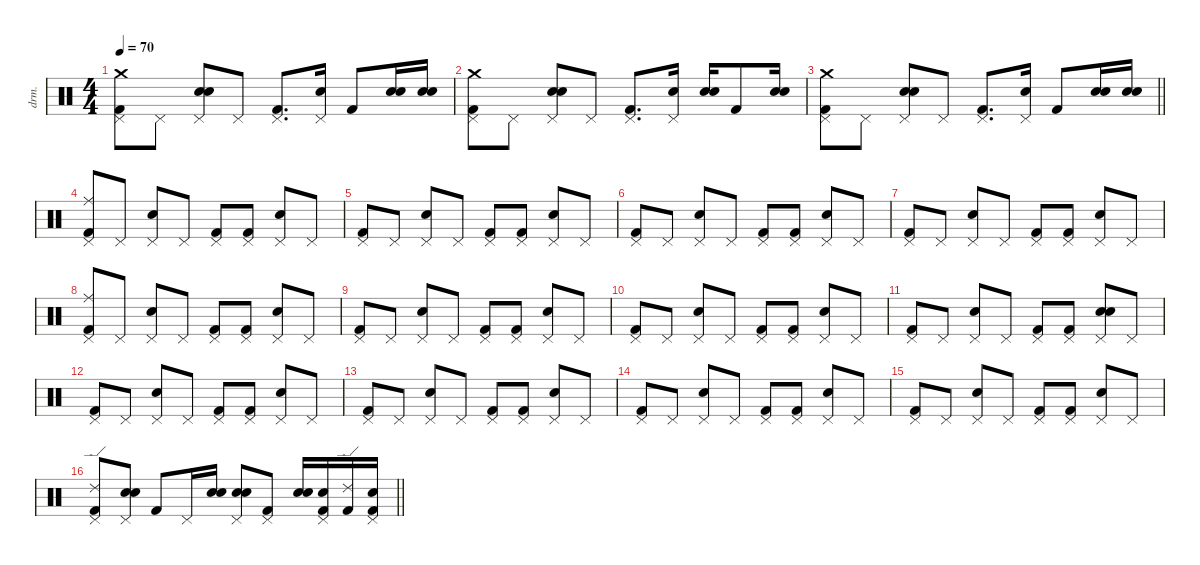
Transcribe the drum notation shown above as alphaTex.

\defaultSystemsLayout 4
\hideDynamics
\bracketExtendMode nobrackets
\otherSystemsTrackNameOrientation horizontal
\track ("Drums" "drm.") {defaultSystemsLayout 4 instrument percussion}
\staff {score}
\articulation defaults
\ts (4 4)
\tempo 70
\clef neutral
\ks c
("Crash medium (hit)" "Pedal Hi-Hat (hit)" "Kick (hit) 2").8{dy f beam Down} "Pedal Hi-Hat (hit)".8{beam Down} ("Pedal Hi-Hat (hit)" "Snare (hit) 2" "Snare (hit) 2").8{beam Up} "Pedal Hi-Hat (hit)".8{beam Up} ("Pedal Hi-Hat (hit)" "Kick (hit) 2").8{d beam Up} ("Pedal Hi-Hat (hit)" "Snare (hit) 2").16{beam Up} "Kick (hit) 2".8{beam Up} ("Snare (hit) 2" "Snare (hit) 2").16{beam Up} ("Snare (hit) 2" "Snare (hit) 2").16{beam Up} |
("Crash medium (hit)" "Pedal Hi-Hat (hit)" "Kick (hit) 2").8{beam Down} "Pedal Hi-Hat (hit)".8{beam Down} ("Pedal Hi-Hat (hit)" "Snare (hit) 2" "Snare (hit) 2").8{beam Up} "Pedal Hi-Hat (hit)".8{beam Up} ("Pedal Hi-Hat (hit)" "Kick (hit) 2").8{d beam Up} ("Pedal Hi-Hat (hit)" "Snare (hit) 2").16{beam Up} ("Snare (hit) 2" "Snare (hit) 2").16{beam Up} "Kick (hit) 2".8{beam Up} ("Snare (hit) 2" "Snare (hit) 2").16{beam Up} |
\barLineRight lightlight
("Crash medium (hit)" "Pedal Hi-Hat (hit)" "Kick (hit) 2").8{beam Down} "Pedal Hi-Hat (hit)".8{beam Down} ("Pedal Hi-Hat (hit)" "Snare (hit) 2" "Snare (hit) 2").8{beam Up} "Pedal Hi-Hat (hit)".8{beam Up} ("Pedal Hi-Hat (hit)" "Kick (hit) 2").8{d beam Up} ("Pedal Hi-Hat (hit)" "Snare (hit) 2").16{beam Up} "Kick (hit) 2".8{beam Up} ("Snare (hit) 2" "Snare (hit) 2").16{beam Up} ("Snare (hit) 2" "Snare (hit) 2").16{beam Up} |
("Pedal Hi-Hat (hit)" "Ride (middle)" "Kick (hit) 2").8{beam Up} "Pedal Hi-Hat (hit)".8{beam Up} ("Pedal Hi-Hat (hit)" "Snare (hit) 2").8{beam Up} "Pedal Hi-Hat (hit)".8{beam Up} ("Pedal Hi-Hat (hit)" "Kick (hit) 2").8{beam Up} ("Pedal Hi-Hat (hit)" "Kick (hit) 2").8{beam Up} ("Pedal Hi-Hat (hit)" "Snare (hit) 2").8{beam Up} "Pedal Hi-Hat (hit)".8{beam Up} |
("Pedal Hi-Hat (hit)" "Kick (hit) 2").8{beam Up} "Pedal Hi-Hat (hit)".8{beam Up} ("Pedal Hi-Hat (hit)" "Snare (hit) 2").8{beam Up} "Pedal Hi-Hat (hit)".8{beam Up} ("Pedal Hi-Hat (hit)" "Kick (hit) 2").8{beam Up} ("Pedal Hi-Hat (hit)" "Kick (hit) 2").8{beam Up} ("Pedal Hi-Hat (hit)" "Snare (hit) 2").8{beam Up} "Pedal Hi-Hat (hit)".8{beam Up} |
("Pedal Hi-Hat (hit)" "Kick (hit) 2").8{beam Up} "Pedal Hi-Hat (hit)".8{beam Up} ("Pedal Hi-Hat (hit)" "Snare (hit) 2").8{beam Up} "Pedal Hi-Hat (hit)".8{beam Up} ("Pedal Hi-Hat (hit)" "Kick (hit) 2").8{beam Up} ("Pedal Hi-Hat (hit)" "Kick (hit) 2").8{beam Up} ("Pedal Hi-Hat (hit)" "Snare (hit) 2").8{beam Up} "Pedal Hi-Hat (hit)".8{beam Up} |
("Pedal Hi-Hat (hit)" "Kick (hit) 2").8{beam Up} "Pedal Hi-Hat (hit)".8{beam Up} ("Pedal Hi-Hat (hit)" "Snare (hit) 2").8{beam Up} "Pedal Hi-Hat (hit)".8{beam Up} ("Pedal Hi-Hat (hit)" "Kick (hit) 2").8{beam Up} ("Pedal Hi-Hat (hit)" "Kick (hit) 2").8{beam Up} ("Pedal Hi-Hat (hit)" "Snare (hit) 2").8{beam Up} "Pedal Hi-Hat (hit)".8{beam Up} |
("Pedal Hi-Hat (hit)" "Ride (middle)" "Kick (hit) 2").8{beam Up} "Pedal Hi-Hat (hit)".8{beam Up} ("Pedal Hi-Hat (hit)" "Snare (hit) 2").8{beam Up} "Pedal Hi-Hat (hit)".8{beam Up} ("Pedal Hi-Hat (hit)" "Kick (hit) 2").8{beam Up} ("Pedal Hi-Hat (hit)" "Kick (hit) 2").8{beam Up} ("Pedal Hi-Hat (hit)" "Snare (hit) 2").8{beam Up} "Pedal Hi-Hat (hit)".8{beam Up} |
("Pedal Hi-Hat (hit)" "Kick (hit) 2").8{beam Up} "Pedal Hi-Hat (hit)".8{beam Up} ("Pedal Hi-Hat (hit)" "Snare (hit) 2").8{beam Up} "Pedal Hi-Hat (hit)".8{beam Up} ("Pedal Hi-Hat (hit)" "Kick (hit) 2").8{beam Up} ("Pedal Hi-Hat (hit)" "Kick (hit) 2").8{beam Up} ("Pedal Hi-Hat (hit)" "Snare (hit) 2").8{beam Up} "Pedal Hi-Hat (hit)".8{beam Up} |
("Pedal Hi-Hat (hit)" "Kick (hit) 2").8{beam Up} "Pedal Hi-Hat (hit)".8{beam Up} ("Pedal Hi-Hat (hit)" "Snare (hit) 2").8{beam Up} "Pedal Hi-Hat (hit)".8{beam Up} ("Pedal Hi-Hat (hit)" "Kick (hit) 2").8{beam Up} ("Pedal Hi-Hat (hit)" "Kick (hit) 2").8{beam Up} ("Pedal Hi-Hat (hit)" "Snare (hit) 2").8{beam Up} "Pedal Hi-Hat (hit)".8{beam Up} |
("Pedal Hi-Hat (hit)" "Kick (hit) 2").8{beam Up} "Pedal Hi-Hat (hit)".8{beam Up} ("Pedal Hi-Hat (hit)" "Snare (hit) 2").8{beam Up} "Pedal Hi-Hat (hit)".8{beam Up} ("Pedal Hi-Hat (hit)" "Kick (hit) 2").8{beam Up} ("Pedal Hi-Hat (hit)" "Kick (hit) 2").8{beam Up} ("Pedal Hi-Hat (hit)" "Snare (hit) 2" "Snare (hit) 2").8{beam Up} "Pedal Hi-Hat (hit)".8{beam Up} |
("Pedal Hi-Hat (hit)" "Kick (hit) 2").8{beam Up} "Pedal Hi-Hat (hit)".8{beam Up} ("Pedal Hi-Hat (hit)" "Snare (hit) 2").8{beam Up} "Pedal Hi-Hat (hit)".8{beam Up} ("Pedal Hi-Hat (hit)" "Kick (hit) 2").8{beam Up} ("Pedal Hi-Hat (hit)" "Kick (hit) 2").8{beam Up} ("Pedal Hi-Hat (hit)" "Snare (hit) 2").8{beam Up} "Pedal Hi-Hat (hit)".8{beam Up} |
("Pedal Hi-Hat (hit)" "Kick (hit) 2").8{beam Up} "Pedal Hi-Hat (hit)".8{beam Up} ("Pedal Hi-Hat (hit)" "Snare (hit) 2").8{beam Up} "Pedal Hi-Hat (hit)".8{beam Up} ("Pedal Hi-Hat (hit)" "Kick (hit) 2").8{beam Up} ("Pedal Hi-Hat (hit)" "Kick (hit) 2").8{beam Up} ("Pedal Hi-Hat (hit)" "Snare (hit) 2").8{beam Up} "Pedal Hi-Hat (hit)".8{beam Up} |
("Pedal Hi-Hat (hit)" "Kick (hit) 2").8{beam Up} "Pedal Hi-Hat (hit)".8{beam Up} ("Pedal Hi-Hat (hit)" "Snare (hit) 2").8{beam Up} "Pedal Hi-Hat (hit)".8{beam Up} ("Pedal Hi-Hat (hit)" "Kick (hit) 2").8{beam Up} ("Pedal Hi-Hat (hit)" "Kick (hit) 2").8{beam Up} ("Pedal Hi-Hat (hit)" "Snare (hit) 2").8{beam Up} "Pedal Hi-Hat (hit)".8{beam Up} |
("Pedal Hi-Hat (hit)" "Kick (hit) 2").8{beam Up} "Pedal Hi-Hat (hit)".8{beam Up} ("Pedal Hi-Hat (hit)" "Snare (hit) 2").8{beam Up} "Pedal Hi-Hat (hit)".8{beam Up} ("Pedal Hi-Hat (hit)" "Kick (hit) 2").8{beam Up} ("Pedal Hi-Hat (hit)" "Kick (hit) 2").8{beam Up} ("Pedal Hi-Hat (hit)" "Snare (hit) 2").8{beam Up} "Pedal Hi-Hat (hit)".8{beam Up} |
\barLineRight lightlight
("Ride (edge) 2" "Pedal Hi-Hat (hit)" "Kick (hit) 2").8{beam Up} ("Pedal Hi-Hat (hit)" "Snare (hit) 2" "Snare (hit) 2").8{beam Up} "Kick (hit) 2".8{beam Up} "Pedal Hi-Hat (hit)".16{beam Up} ("Snare (hit) 2" "Snare (hit) 2").16{beam Up} ("Pedal Hi-Hat (hit)" "Snare (hit) 2" "Snare (hit) 2").8{beam Up} ("Pedal Hi-Hat (hit)" "Kick (hit) 2").8{beam Up} ("Snare (hit) 2" "Snare (hit) 2").16{beam Up} ("Pedal Hi-Hat (hit)" "Snare (hit) 2" "Kick (hit) 2").16{beam Up} ("Ride (edge) 2" "Kick (hit) 2").16{beam Up} ("Pedal Hi-Hat (hit)" "Snare (hit) 2" "Kick (hit) 2").16{beam Up}
